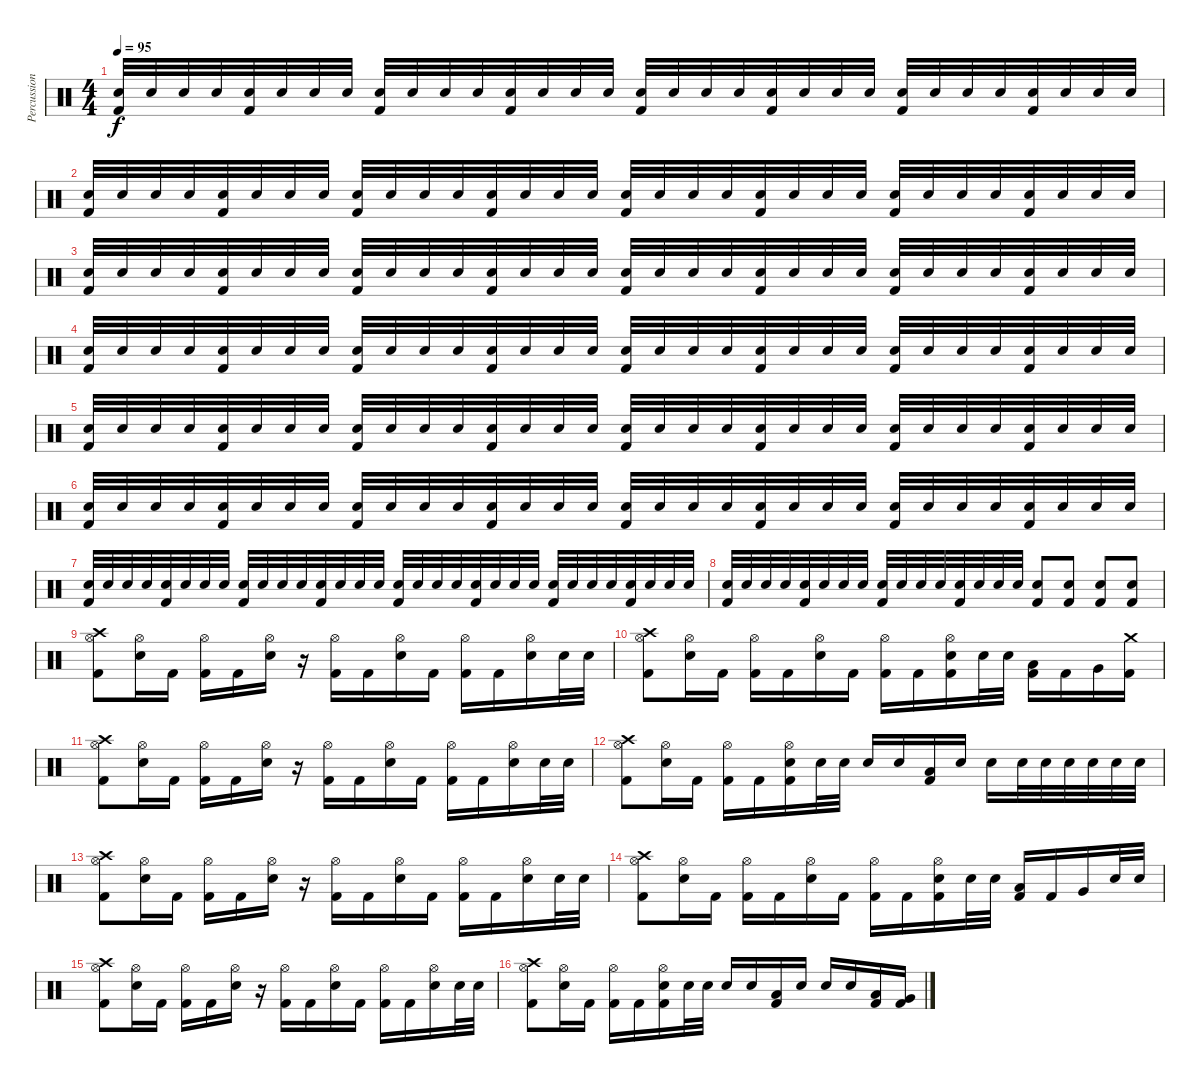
\track ("Percussion" "Percussion") {instrument percussion}
\staff {score}
\articulation defaults
\ts (4 4)
\tempo 95
\clef neutral
\ks c
("Electric Snare (hit)" "Kick (hit) 2").32{dy f} "Electric Snare (hit)".32 "Electric Snare (hit)".32 "Electric Snare (hit)".32 ("Electric Snare (hit)" "Kick (hit) 2").32 "Electric Snare (hit)".32 "Electric Snare (hit)".32 "Electric Snare (hit)".32 ("Electric Snare (hit)" "Kick (hit) 2").32 "Electric Snare (hit)".32 "Electric Snare (hit)".32 "Electric Snare (hit)".32 ("Electric Snare (hit)" "Kick (hit) 2").32 "Electric Snare (hit)".32 "Electric Snare (hit)".32 "Electric Snare (hit)".32 ("Electric Snare (hit)" "Kick (hit) 2").32 "Electric Snare (hit)".32 "Electric Snare (hit)".32 "Electric Snare (hit)".32 ("Electric Snare (hit)" "Kick (hit) 2").32 "Electric Snare (hit)".32 "Electric Snare (hit)".32 "Electric Snare (hit)".32 ("Electric Snare (hit)" "Kick (hit) 2").32 "Electric Snare (hit)".32 "Electric Snare (hit)".32 "Electric Snare (hit)".32 ("Electric Snare (hit)" "Kick (hit) 2").32 "Electric Snare (hit)".32 "Electric Snare (hit)".32 "Electric Snare (hit)".32 |
("Electric Snare (hit)" "Kick (hit) 2").32 "Electric Snare (hit)".32 "Electric Snare (hit)".32 "Electric Snare (hit)".32 ("Electric Snare (hit)" "Kick (hit) 2").32 "Electric Snare (hit)".32 "Electric Snare (hit)".32 "Electric Snare (hit)".32 ("Electric Snare (hit)" "Kick (hit) 2").32 "Electric Snare (hit)".32 "Electric Snare (hit)".32 "Electric Snare (hit)".32 ("Electric Snare (hit)" "Kick (hit) 2").32 "Electric Snare (hit)".32 "Electric Snare (hit)".32 "Electric Snare (hit)".32 ("Electric Snare (hit)" "Kick (hit) 2").32 "Electric Snare (hit)".32 "Electric Snare (hit)".32 "Electric Snare (hit)".32 ("Electric Snare (hit)" "Kick (hit) 2").32 "Electric Snare (hit)".32 "Electric Snare (hit)".32 "Electric Snare (hit)".32 ("Electric Snare (hit)" "Kick (hit) 2").32 "Electric Snare (hit)".32 "Electric Snare (hit)".32 "Electric Snare (hit)".32 ("Electric Snare (hit)" "Kick (hit) 2").32 "Electric Snare (hit)".32 "Electric Snare (hit)".32 "Electric Snare (hit)".32 |
("Electric Snare (hit)" "Kick (hit) 2").32 "Electric Snare (hit)".32 "Electric Snare (hit)".32 "Electric Snare (hit)".32 ("Electric Snare (hit)" "Kick (hit) 2").32 "Electric Snare (hit)".32 "Electric Snare (hit)".32 "Electric Snare (hit)".32 ("Electric Snare (hit)" "Kick (hit) 2").32 "Electric Snare (hit)".32 "Electric Snare (hit)".32 "Electric Snare (hit)".32 ("Electric Snare (hit)" "Kick (hit) 2").32 "Electric Snare (hit)".32 "Electric Snare (hit)".32 "Electric Snare (hit)".32 ("Electric Snare (hit)" "Kick (hit) 2").32 "Electric Snare (hit)".32 "Electric Snare (hit)".32 "Electric Snare (hit)".32 ("Electric Snare (hit)" "Kick (hit) 2").32 "Electric Snare (hit)".32 "Electric Snare (hit)".32 "Electric Snare (hit)".32 ("Electric Snare (hit)" "Kick (hit) 2").32 "Electric Snare (hit)".32 "Electric Snare (hit)".32 "Electric Snare (hit)".32 ("Electric Snare (hit)" "Kick (hit) 2").32 "Electric Snare (hit)".32 "Electric Snare (hit)".32 "Electric Snare (hit)".32 |
("Electric Snare (hit)" "Kick (hit) 2").32 "Electric Snare (hit)".32 "Electric Snare (hit)".32 "Electric Snare (hit)".32 ("Electric Snare (hit)" "Kick (hit) 2").32 "Electric Snare (hit)".32 "Electric Snare (hit)".32 "Electric Snare (hit)".32 ("Electric Snare (hit)" "Kick (hit) 2").32 "Electric Snare (hit)".32 "Electric Snare (hit)".32 "Electric Snare (hit)".32 ("Electric Snare (hit)" "Kick (hit) 2").32 "Electric Snare (hit)".32 "Electric Snare (hit)".32 "Electric Snare (hit)".32 ("Electric Snare (hit)" "Kick (hit) 2").32 "Electric Snare (hit)".32 "Electric Snare (hit)".32 "Electric Snare (hit)".32 ("Electric Snare (hit)" "Kick (hit) 2").32 "Electric Snare (hit)".32 "Electric Snare (hit)".32 "Electric Snare (hit)".32 ("Electric Snare (hit)" "Kick (hit) 2").32 "Electric Snare (hit)".32 "Electric Snare (hit)".32 "Electric Snare (hit)".32 ("Electric Snare (hit)" "Kick (hit) 2").32 "Electric Snare (hit)".32 "Electric Snare (hit)".32 "Electric Snare (hit)".32 |
("Electric Snare (hit)" "Kick (hit) 2").32 "Electric Snare (hit)".32 "Electric Snare (hit)".32 "Electric Snare (hit)".32 ("Electric Snare (hit)" "Kick (hit) 2").32 "Electric Snare (hit)".32 "Electric Snare (hit)".32 "Electric Snare (hit)".32 ("Electric Snare (hit)" "Kick (hit) 2").32 "Electric Snare (hit)".32 "Electric Snare (hit)".32 "Electric Snare (hit)".32 ("Electric Snare (hit)" "Kick (hit) 2").32 "Electric Snare (hit)".32 "Electric Snare (hit)".32 "Electric Snare (hit)".32 ("Electric Snare (hit)" "Kick (hit) 2").32 "Electric Snare (hit)".32 "Electric Snare (hit)".32 "Electric Snare (hit)".32 ("Electric Snare (hit)" "Kick (hit) 2").32 "Electric Snare (hit)".32 "Electric Snare (hit)".32 "Electric Snare (hit)".32 ("Electric Snare (hit)" "Kick (hit) 2").32 "Electric Snare (hit)".32 "Electric Snare (hit)".32 "Electric Snare (hit)".32 ("Electric Snare (hit)" "Kick (hit) 2").32 "Electric Snare (hit)".32 "Electric Snare (hit)".32 "Electric Snare (hit)".32 |
("Electric Snare (hit)" "Kick (hit) 2").32 "Electric Snare (hit)".32 "Electric Snare (hit)".32 "Electric Snare (hit)".32 ("Electric Snare (hit)" "Kick (hit) 2").32 "Electric Snare (hit)".32 "Electric Snare (hit)".32 "Electric Snare (hit)".32 ("Electric Snare (hit)" "Kick (hit) 2").32 "Electric Snare (hit)".32 "Electric Snare (hit)".32 "Electric Snare (hit)".32 ("Electric Snare (hit)" "Kick (hit) 2").32 "Electric Snare (hit)".32 "Electric Snare (hit)".32 "Electric Snare (hit)".32 ("Electric Snare (hit)" "Kick (hit) 2").32 "Electric Snare (hit)".32 "Electric Snare (hit)".32 "Electric Snare (hit)".32 ("Electric Snare (hit)" "Kick (hit) 2").32 "Electric Snare (hit)".32 "Electric Snare (hit)".32 "Electric Snare (hit)".32 ("Electric Snare (hit)" "Kick (hit) 2").32 "Electric Snare (hit)".32 "Electric Snare (hit)".32 "Electric Snare (hit)".32 ("Electric Snare (hit)" "Kick (hit) 2").32 "Electric Snare (hit)".32 "Electric Snare (hit)".32 "Electric Snare (hit)".32 |
("Electric Snare (hit)" "Kick (hit) 2").32 "Electric Snare (hit)".32 "Electric Snare (hit)".32 "Electric Snare (hit)".32 ("Electric Snare (hit)" "Kick (hit) 2").32 "Electric Snare (hit)".32 "Electric Snare (hit)".32 "Electric Snare (hit)".32 ("Electric Snare (hit)" "Kick (hit) 2").32 "Electric Snare (hit)".32 "Electric Snare (hit)".32 "Electric Snare (hit)".32 ("Electric Snare (hit)" "Kick (hit) 2").32 "Electric Snare (hit)".32 "Electric Snare (hit)".32 "Electric Snare (hit)".32 ("Electric Snare (hit)" "Kick (hit) 2").32 "Electric Snare (hit)".32 "Electric Snare (hit)".32 "Electric Snare (hit)".32 ("Electric Snare (hit)" "Kick (hit) 2").32 "Electric Snare (hit)".32 "Electric Snare (hit)".32 "Electric Snare (hit)".32 ("Electric Snare (hit)" "Kick (hit) 2").32 "Electric Snare (hit)".32 "Electric Snare (hit)".32 "Electric Snare (hit)".32 ("Electric Snare (hit)" "Kick (hit) 2").32 "Electric Snare (hit)".32 "Electric Snare (hit)".32 "Electric Snare (hit)".32 |
("Electric Snare (hit)" "Kick (hit) 2").32 "Electric Snare (hit)".32 "Electric Snare (hit)".32 "Electric Snare (hit)".32 ("Electric Snare (hit)" "Kick (hit) 2").32 "Electric Snare (hit)".32 "Electric Snare (hit)".32 "Electric Snare (hit)".32 ("Electric Snare (hit)" "Kick (hit) 2").32 "Electric Snare (hit)".32 "Electric Snare (hit)".32 "Electric Snare (hit)".32 ("Electric Snare (hit)" "Kick (hit) 2").32 "Electric Snare (hit)".32 "Electric Snare (hit)".32 "Electric Snare (hit)".32 ("Electric Snare (hit)" "Kick (hit) 2").8 ("Electric Snare (hit)" "Kick (hit) 2").8 ("Electric Snare (hit)" "Kick (hit) 2").8 ("Electric Snare (hit)" "Kick (hit) 2").8 |
("Crash high (hit)" "Hi-Hat (open)" "Kick (hit) 2").8 ("Hi-Hat (open)" "Electric Snare (hit)").16 "Kick (hit) 2".16 ("Hi-Hat (open)" "Kick (hit) 2").16 "Kick (hit) 2".16 ("Hi-Hat (open)" "Electric Snare (hit)").16 r.16 ("Hi-Hat (open)" "Kick (hit) 2").16 "Kick (hit) 2".16 ("Hi-Hat (open)" "Electric Snare (hit)").16 "Kick (hit) 2".16 ("Hi-Hat (open)" "Kick (hit) 2").16 "Kick (hit) 2".16 ("Hi-Hat (open)" "Electric Snare (hit)").16 "Electric Snare (hit)".32 "Electric Snare (hit)".32 |
("Crash high (hit)" "Hi-Hat (open)" "Kick (hit) 2").8 ("Hi-Hat (open)" "Electric Snare (hit)").16 "Kick (hit) 2".16 ("Hi-Hat (open)" "Kick (hit) 2").16 "Kick (hit) 2".16 ("Hi-Hat (open)" "Electric Snare (hit)").16 "Kick (hit) 2".16 ("Hi-Hat (open)" "Kick (hit) 2").16 "Kick (hit) 2".16 ("Hi-Hat (open)" "Electric Snare (hit)" "Kick (hit) 2").16 "Electric Snare (hit)".32 "Electric Snare (hit)".32 ("Low Tom (hit)" "Kick (hit) 2").16 "Kick (hit) 2".16 "Very Low Tom (hit)".16 ("Crash medium (hit)" "Kick (hit) 2").16 |
("Crash high (hit)" "Hi-Hat (open)" "Kick (hit) 2").8 ("Hi-Hat (open)" "Electric Snare (hit)").16 "Kick (hit) 2".16 ("Hi-Hat (open)" "Kick (hit) 2").16 "Kick (hit) 2".16 ("Hi-Hat (open)" "Electric Snare (hit)").16 r.16 ("Hi-Hat (open)" "Kick (hit) 2").16 "Kick (hit) 2".16 ("Hi-Hat (open)" "Electric Snare (hit)").16 "Kick (hit) 2".16 ("Hi-Hat (open)" "Kick (hit) 2").16 "Kick (hit) 2".16 ("Hi-Hat (open)" "Electric Snare (hit)").16 "Electric Snare (hit)".32 "Electric Snare (hit)".32 |
("Crash high (hit)" "Hi-Hat (open)" "Kick (hit) 2").8 ("Hi-Hat (open)" "Electric Snare (hit)").16 "Kick (hit) 2".16 ("Hi-Hat (open)" "Kick (hit) 2").16 "Kick (hit) 2".16 ("Hi-Hat (open)" "Electric Snare (hit)" "Kick (hit) 2").16 "Electric Snare (hit)".32 "Electric Snare (hit)".32 "Electric Snare (hit)".16 "Electric Snare (hit)".16 ("Low Tom (hit)" "Kick (hit) 2").16 "Electric Snare (hit)".16 "Electric Snare (hit)".16 "Electric Snare (hit)".32 "Electric Snare (hit)".32 "Electric Snare (hit)".32 "Electric Snare (hit)".32 "Electric Snare (hit)".32 "Electric Snare (hit)".32 |
("Crash high (hit)" "Hi-Hat (open)" "Kick (hit) 2").8 ("Hi-Hat (open)" "Electric Snare (hit)").16 "Kick (hit) 2".16 ("Hi-Hat (open)" "Kick (hit) 2").16 "Kick (hit) 2".16 ("Hi-Hat (open)" "Electric Snare (hit)").16 r.16 ("Hi-Hat (open)" "Kick (hit) 2").16 "Kick (hit) 2".16 ("Hi-Hat (open)" "Electric Snare (hit)").16 "Kick (hit) 2".16 ("Hi-Hat (open)" "Kick (hit) 2").16 "Kick (hit) 2".16 ("Hi-Hat (open)" "Electric Snare (hit)").16 "Electric Snare (hit)".32 "Electric Snare (hit)".32 |
("Crash high (hit)" "Hi-Hat (open)" "Kick (hit) 2").8 ("Hi-Hat (open)" "Electric Snare (hit)").16 "Kick (hit) 2".16 ("Hi-Hat (open)" "Kick (hit) 2").16 "Kick (hit) 2".16 ("Hi-Hat (open)" "Electric Snare (hit)").16 "Kick (hit) 2".16 ("Hi-Hat (open)" "Kick (hit) 2").16 "Kick (hit) 2".16 ("Hi-Hat (open)" "Electric Snare (hit)" "Kick (hit) 2").16 "Electric Snare (hit)".32 "Electric Snare (hit)".32 ("Low Tom (hit)" "Kick (hit) 2").16 "Kick (hit) 2".16 "Very Low Tom (hit)".16 "Electric Snare (hit)".32 "Electric Snare (hit)".32 |
("Crash high (hit)" "Hi-Hat (open)" "Kick (hit) 2").8 ("Hi-Hat (open)" "Electric Snare (hit)").16 "Kick (hit) 2".16 ("Hi-Hat (open)" "Kick (hit) 2").16 "Kick (hit) 2".16 ("Hi-Hat (open)" "Electric Snare (hit)").16 r.16 ("Hi-Hat (open)" "Kick (hit) 2").16 "Kick (hit) 2".16 ("Hi-Hat (open)" "Electric Snare (hit)").16 "Kick (hit) 2".16 ("Hi-Hat (open)" "Kick (hit) 2").16 "Kick (hit) 2".16 ("Hi-Hat (open)" "Electric Snare (hit)").16 "Electric Snare (hit)".32 "Electric Snare (hit)".32 |
("Crash high (hit)" "Hi-Hat (open)" "Kick (hit) 2").8 ("Hi-Hat (open)" "Electric Snare (hit)").16 "Kick (hit) 2".16 ("Hi-Hat (open)" "Kick (hit) 2").16 "Kick (hit) 2".16 ("Hi-Hat (open)" "Electric Snare (hit)" "Kick (hit) 2").16 "Electric Snare (hit)".32 "Electric Snare (hit)".32 "Electric Snare (hit)".16 "Electric Snare (hit)".16 ("Low Tom (hit)" "Kick (hit) 2").16 "Electric Snare (hit)".16 "Electric Snare (hit)".16 "Electric Snare (hit)".16 ("Low Tom (hit)" "Kick (hit) 2").16 ("Very Low Tom (hit)" "Kick (hit) 2").16
